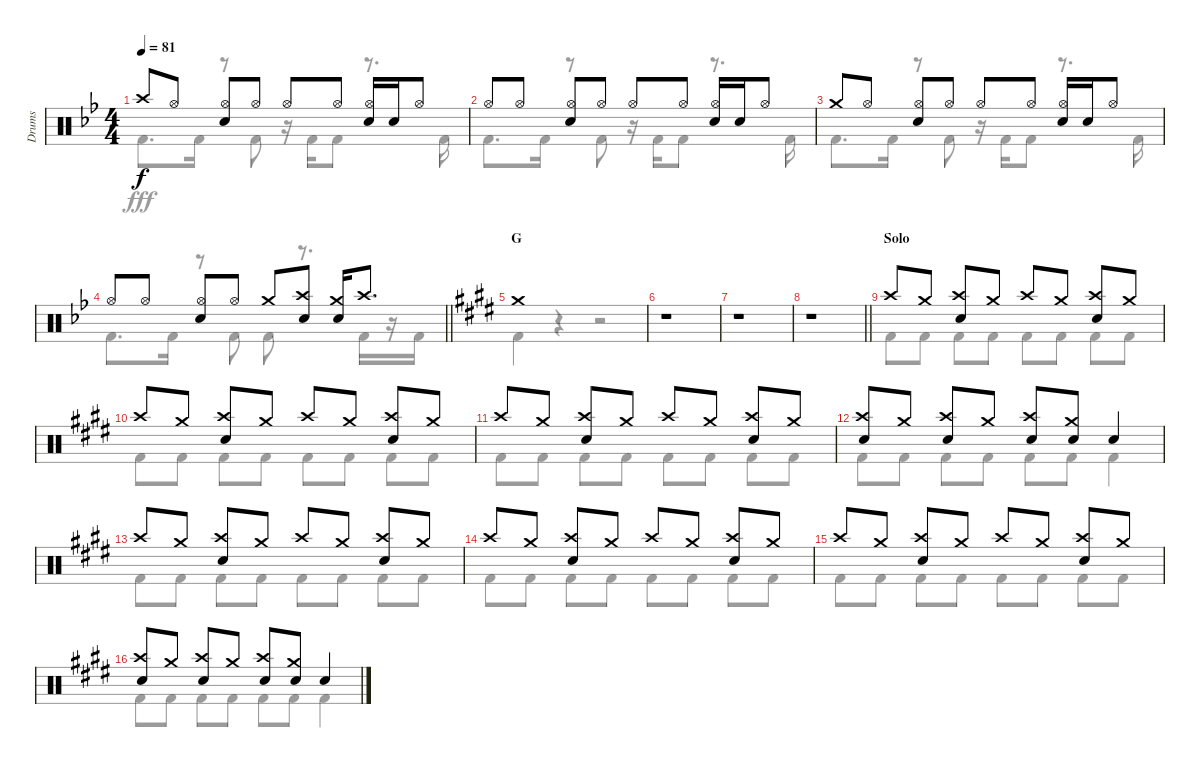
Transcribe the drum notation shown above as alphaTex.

\track ("Drums" "Drums") {instrument percussion}
\staff {score}
\articulation defaults
\voice
\ts (4 4)
\tempo 81
\clef neutral
\ks bb "Crash high (hit)".8{dy f} "Hi-Hat (open)".8
("Hi-Hat (open)" "Snare (hit) 2").8 "Hi-Hat (open)".8 "Hi-Hat (open)".8 "Hi-Hat (open)".8 ("Hi-Hat (open)" "Snare (hit) 2").16 "Snare (hit) 2".16 "Hi-Hat (open)".8 |
"Hi-Hat (open)".8 "Hi-Hat (open)".8 ("Hi-Hat (open)" "Snare (hit) 2").8 "Hi-Hat (open)".8 "Hi-Hat (open)".8 "Hi-Hat (open)".8 ("Hi-Hat (open)" "Snare (hit) 2").16 "Snare (hit) 2".16 "Hi-Hat (open)".8 |
"Crash medium (hit)".8 "Hi-Hat (open)".8 ("Hi-Hat (open)" "Snare (hit) 2").8 "Hi-Hat (open)".8 "Hi-Hat (open)".8 "Hi-Hat (open)".8 ("Hi-Hat (open)" "Snare (hit) 2").16 "Snare (hit) 2".16 "Hi-Hat (open)".8 |
\barLineRight lightlight "Hi-Hat (open)".8 "Hi-Hat (open)".8
("Hi-Hat (open)" "Snare (hit) 2").8 "Hi-Hat (open)".8 "Crash medium (hit)".8 ("Crash high (hit)" "Snare (hit) 2").8 ("Crash medium (hit)" "Snare (hit) 2").16 "Crash high (hit)".8{d} |
\section ("" "G")
\ks e "Crash medium (hit)".1
|
r.1 |
r.1 |
\barLineRight lightlight
r.1 |
\section ("" "Solo")
"Crash high (hit)".8 "Crash medium (hit)".8 ("Crash high (hit)" "Snare (hit) 2").8 "Crash medium (hit)".8 "Crash high (hit)".8 "Crash medium (hit)".8 ("Crash high (hit)" "Snare (hit) 2").8 "Crash medium (hit)".8 |
"Crash high (hit)".8 "Crash medium (hit)".8 ("Crash high (hit)" "Snare (hit) 2").8 "Crash medium (hit)".8 "Crash high (hit)".8 "Crash medium (hit)".8 ("Crash high (hit)" "Snare (hit) 2").8 "Crash medium (hit)".8 |
"Crash high (hit)".8 "Crash medium (hit)".8 ("Crash high (hit)" "Snare (hit) 2").8 "Crash medium (hit)".8 "Crash high (hit)".8 "Crash medium (hit)".8 ("Crash high (hit)" "Snare (hit) 2").8 "Crash medium (hit)".8 |
("Crash high (hit)" "Snare (hit) 2").8 "Crash medium (hit)".8 ("Crash high (hit)" "Snare (hit) 2").8 "Crash medium (hit)".8 ("Crash high (hit)" "Snare (hit) 2").8 ("Crash medium (hit)" "Snare (hit) 2").8 "Snare (hit) 2".4 |
"Crash high (hit)".8 "Crash medium (hit)".8 ("Crash high (hit)" "Snare (hit) 2").8 "Crash medium (hit)".8 "Crash high (hit)".8 "Crash medium (hit)".8 ("Crash high (hit)" "Snare (hit) 2").8 "Crash medium (hit)".8 |
"Crash high (hit)".8 "Crash medium (hit)".8 ("Crash high (hit)" "Snare (hit) 2").8 "Crash medium (hit)".8 "Crash high (hit)".8 "Crash medium (hit)".8 ("Crash high (hit)" "Snare (hit) 2").8 "Crash medium (hit)".8 |
"Crash high (hit)".8 "Crash medium (hit)".8 ("Crash high (hit)" "Snare (hit) 2").8 "Crash medium (hit)".8 "Crash high (hit)".8 "Crash medium (hit)".8 ("Crash high (hit)" "Snare (hit) 2").8 "Crash medium (hit)".8 |
("Crash high (hit)" "Snare (hit) 2").8 "Crash medium (hit)".8 ("Crash high (hit)" "Snare (hit) 2").8 "Crash medium (hit)".8 ("Crash high (hit)" "Snare (hit) 2").8 ("Crash medium (hit)" "Snare (hit) 2").8 "Snare (hit) 2".4
\voice
\clef neutral
\ottava regular
\simile none
\ks bb "Kick (hit) 2".8{d dy fff} "Kick (hit) 2".16
r.8 "Kick (hit) 2".8 r.16 "Kick (hit) 2".16 "Kick (hit) 2".8 r.8{d} "Kick (hit) 2".16 |
"Kick (hit) 2".8{d} "Kick (hit) 2".16 r.8 "Kick (hit) 2".8 r.16 "Kick (hit) 2".16 "Kick (hit) 2".8 r.8{d} "Kick (hit) 2".16 |
"Kick (hit) 2".8{d} "Kick (hit) 2".16 r.8 "Kick (hit) 2".8 r.16 "Kick (hit) 2".16 "Kick (hit) 2".8 r.8{d} "Kick (hit) 2".16 |
\barLineRight lightlight "Kick (hit) 2".8{d} "Kick (hit) 2".16
r.8 "Kick (hit) 2".8 "Kick (hit) 2".8 r.8{d} "Kick (hit) 2".16 r.16 "Kick (hit) 2".16 |
\ks e "Kick (hit) 2".4
r.4 r.2 |
r.1 |
r.1 |
\barLineRight lightlight
r.1 |
"Kick (hit) 2".8 "Kick (hit) 2".8 "Kick (hit) 2".8 "Kick (hit) 2".8 "Kick (hit) 2".8 "Kick (hit) 2".8 "Kick (hit) 2".8 "Kick (hit) 2".8 |
"Kick (hit) 2".8 "Kick (hit) 2".8 "Kick (hit) 2".8 "Kick (hit) 2".8 "Kick (hit) 2".8 "Kick (hit) 2".8 "Kick (hit) 2".8 "Kick (hit) 2".8 |
"Kick (hit) 2".8 "Kick (hit) 2".8 "Kick (hit) 2".8 "Kick (hit) 2".8 "Kick (hit) 2".8 "Kick (hit) 2".8 "Kick (hit) 2".8 "Kick (hit) 2".8 |
"Kick (hit) 2".8 "Kick (hit) 2".8 "Kick (hit) 2".8 "Kick (hit) 2".8 "Kick (hit) 2".8 "Kick (hit) 2".8 "Kick (hit) 2".4 |
"Kick (hit) 2".8 "Kick (hit) 2".8 "Kick (hit) 2".8 "Kick (hit) 2".8 "Kick (hit) 2".8 "Kick (hit) 2".8 "Kick (hit) 2".8 "Kick (hit) 2".8 |
"Kick (hit) 2".8 "Kick (hit) 2".8 "Kick (hit) 2".8 "Kick (hit) 2".8 "Kick (hit) 2".8 "Kick (hit) 2".8 "Kick (hit) 2".8 "Kick (hit) 2".8 |
"Kick (hit) 2".8 "Kick (hit) 2".8 "Kick (hit) 2".8 "Kick (hit) 2".8 "Kick (hit) 2".8 "Kick (hit) 2".8 "Kick (hit) 2".8 "Kick (hit) 2".8 |
"Kick (hit) 2".8 "Kick (hit) 2".8 "Kick (hit) 2".8 "Kick (hit) 2".8 "Kick (hit) 2".8 "Kick (hit) 2".8 "Kick (hit) 2".4
